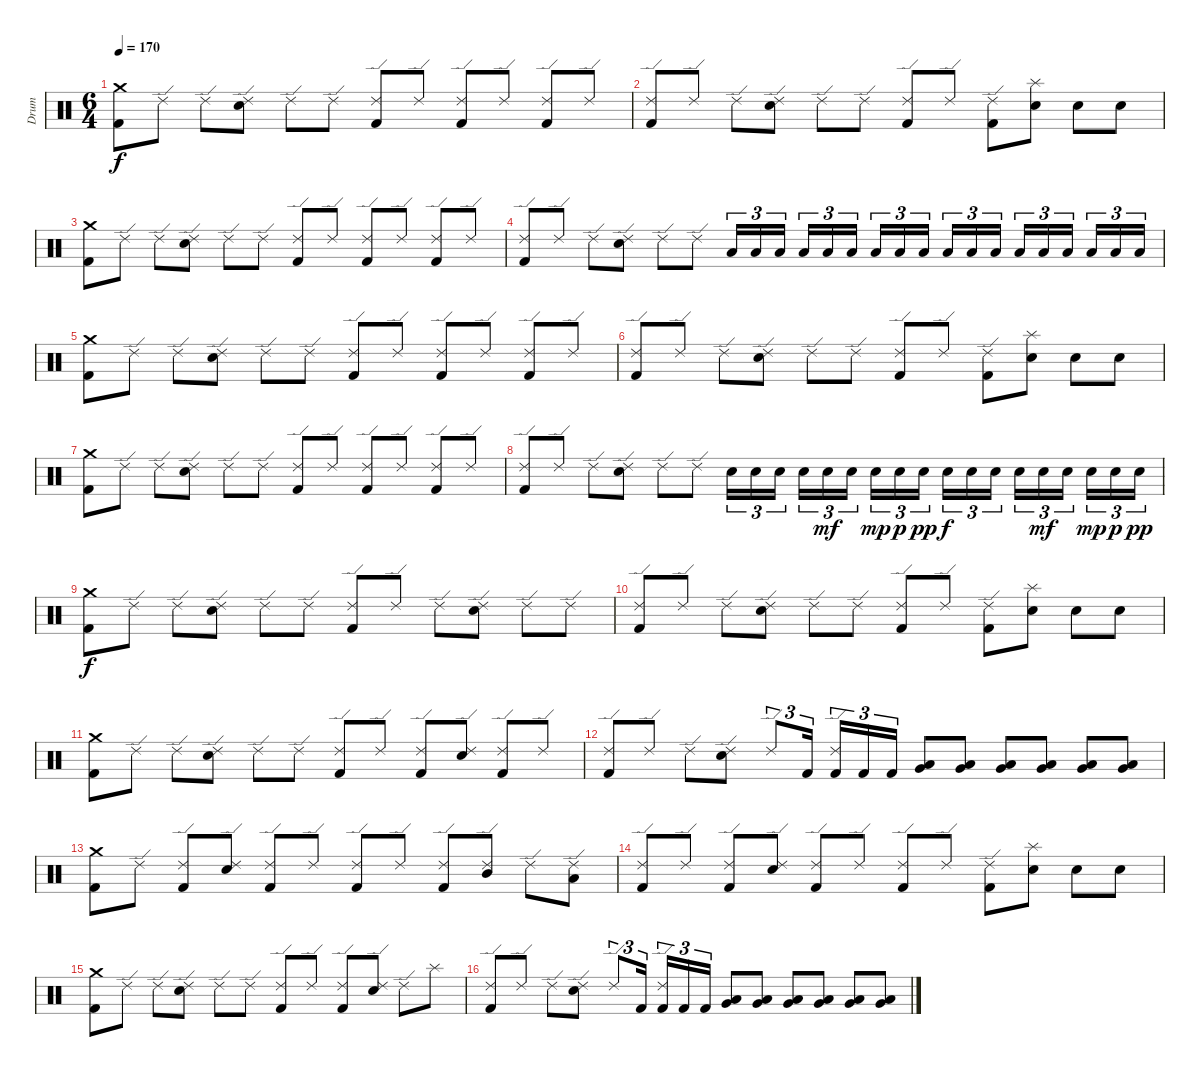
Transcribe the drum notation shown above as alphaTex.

\track ("Drum" "Drum") {instrument percussion}
\staff {score}
\articulation defaults
\ts (6 4)
\tempo 170
\clef neutral
\ks c
("Crash medium (hit)" "Kick (hit) 2").8{dy f} "Ride (edge) 2".8 "Ride (edge) 2".8 ("Ride (edge) 2" "Electric Snare (hit)").8 "Ride (edge) 2".8 "Ride (edge) 2".8 ("Ride (edge) 2" "Kick (hit) 2").8 "Ride (edge) 2".8 ("Ride (edge) 2" "Kick (hit) 2").8 "Ride (edge) 2".8 ("Ride (edge) 2" "Kick (hit) 2").8 "Ride (edge) 2".8 |
("Ride (edge) 2" "Kick (hit) 2").8 "Ride (edge) 2".8 "Ride (edge) 2".8 ("Ride (edge) 2" "Electric Snare (hit)").8 "Ride (edge) 2".8 "Ride (edge) 2".8 ("Ride (edge) 2" "Kick (hit) 2").8 "Ride (edge) 2".8 ("Ride (edge) 2" "Kick (hit) 2").8 ("Splash (hit)" "Electric Snare (hit)").8 "Electric Snare (hit)".8 "Electric Snare (hit)".8 |
("Crash medium (hit)" "Kick (hit) 2").8 "Ride (edge) 2".8 "Ride (edge) 2".8 ("Ride (edge) 2" "Electric Snare (hit)").8 "Ride (edge) 2".8 "Ride (edge) 2".8 ("Ride (edge) 2" "Kick (hit) 2").8 "Ride (edge) 2".8 ("Ride (edge) 2" "Kick (hit) 2").8 "Ride (edge) 2".8 ("Ride (edge) 2" "Kick (hit) 2").8 "Ride (edge) 2".8 |
("Ride (edge) 2" "Kick (hit) 2").8 "Ride (edge) 2".8 "Ride (edge) 2".8 ("Ride (edge) 2" "Electric Snare (hit)").8 "Ride (edge) 2".8 "Ride (edge) 2".8 "Low Tom (hit)".16{tu (3 2)} "Low Tom (hit)".16{tu (3 2)} "Low Tom (hit)".16{tu (3 2)} "Low Tom (hit)".16{tu (3 2)} "Low Tom (hit)".16{tu (3 2)} "Low Tom (hit)".16{tu (3 2)} "Low Tom (hit)".16{tu (3 2)} "Low Tom (hit)".16{tu (3 2)} "Low Tom (hit)".16{tu (3 2)} "Low Floor Tom (hit)".16{tu (3 2)} "Low Floor Tom (hit)".16{tu (3 2)} "Low Floor Tom (hit)".16{tu (3 2)} "Low Floor Tom (hit)".16{tu (3 2)} "Low Floor Tom (hit)".16{tu (3 2)} "Low Floor Tom (hit)".16{tu (3 2)} "Low Floor Tom (hit)".16{tu (3 2)} "Low Floor Tom (hit)".16{tu (3 2)} "Low Floor Tom (hit)".16{tu (3 2)} |
("Crash medium (hit)" "Kick (hit) 2").8 "Ride (edge) 2".8 "Ride (edge) 2".8 ("Ride (edge) 2" "Electric Snare (hit)").8 "Ride (edge) 2".8 "Ride (edge) 2".8 ("Ride (edge) 2" "Kick (hit) 2").8 "Ride (edge) 2".8 ("Ride (edge) 2" "Kick (hit) 2").8 "Ride (edge) 2".8 ("Ride (edge) 2" "Kick (hit) 2").8 "Ride (edge) 2".8 |
("Ride (edge) 2" "Kick (hit) 2").8 "Ride (edge) 2".8 "Ride (edge) 2".8 ("Ride (edge) 2" "Electric Snare (hit)").8 "Ride (edge) 2".8 "Ride (edge) 2".8 ("Ride (edge) 2" "Kick (hit) 2").8 "Ride (edge) 2".8 ("Ride (edge) 2" "Kick (hit) 2").8 ("Splash (hit)" "Electric Snare (hit)").8 "Electric Snare (hit)".8 "Electric Snare (hit)".8 |
("Crash medium (hit)" "Kick (hit) 2").8 "Ride (edge) 2".8 "Ride (edge) 2".8 ("Ride (edge) 2" "Electric Snare (hit)").8 "Ride (edge) 2".8 "Ride (edge) 2".8 ("Ride (edge) 2" "Kick (hit) 2").8 "Ride (edge) 2".8 ("Ride (edge) 2" "Kick (hit) 2").8 "Ride (edge) 2".8 ("Ride (edge) 2" "Kick (hit) 2").8 "Ride (edge) 2".8 |
("Ride (edge) 2" "Kick (hit) 2").8 "Ride (edge) 2".8 "Ride (edge) 2".8 ("Ride (edge) 2" "Electric Snare (hit)").8 "Ride (edge) 2".8 "Ride (edge) 2".8 "Electric Snare (hit)".16{tu (3 2)} "Electric Snare (hit)".16{tu (3 2)} "Electric Snare (hit)".16{tu (3 2)} "Electric Snare (hit)".16{tu (3 2)} "Electric Snare (hit)".16{tu (3 2) dy mf} "Electric Snare (hit)".16{tu (3 2)} "Electric Snare (hit)".16{tu (3 2) dy mp} "Electric Snare (hit)".16{tu (3 2) dy p} "Electric Snare (hit)".16{tu (3 2) dy pp} "Electric Snare (hit)".16{tu (3 2) dy f} "Electric Snare (hit)".16{tu (3 2)} "Electric Snare (hit)".16{tu (3 2)} "Electric Snare (hit)".16{tu (3 2)} "Electric Snare (hit)".16{tu (3 2) dy mf} "Electric Snare (hit)".16{tu (3 2)} "Electric Snare (hit)".16{tu (3 2) dy mp} "Electric Snare (hit)".16{tu (3 2) dy p} "Electric Snare (hit)".16{tu (3 2) dy pp} |
("Crash medium (hit)" "Kick (hit) 2").8{dy f} "Ride (edge) 2".8 "Ride (edge) 2".8 ("Ride (edge) 2" "Electric Snare (hit)").8 "Ride (edge) 2".8 "Ride (edge) 2".8 ("Ride (edge) 2" "Kick (hit) 2").8 "Ride (edge) 2".8 "Ride (edge) 2".8 ("Ride (edge) 2" "Electric Snare (hit)").8 "Ride (edge) 2".8 "Ride (edge) 2".8 |
("Ride (edge) 2" "Kick (hit) 2").8 "Ride (edge) 2".8 "Ride (edge) 2".8 ("Ride (edge) 2" "Electric Snare (hit)").8 "Ride (edge) 2".8 "Ride (edge) 2".8 ("Ride (edge) 2" "Kick (hit) 2").8 "Ride (edge) 2".8 ("Ride (edge) 2" "Kick (hit) 2").8 ("Splash (hit)" "Electric Snare (hit)").8 "Electric Snare (hit)".8 "Electric Snare (hit)".8 |
("Crash medium (hit)" "Kick (hit) 2").8 "Ride (edge) 2".8 "Ride (edge) 2".8 ("Ride (edge) 2" "Electric Snare (hit)").8 "Ride (edge) 2".8 "Ride (edge) 2".8 ("Ride (edge) 2" "Kick (hit) 2").8 "Ride (edge) 2".8 ("Ride (edge) 2" "Kick (hit) 2").8 ("Ride (edge) 2" "Electric Snare (hit)").8 ("Ride (edge) 2" "Kick (hit) 2").8 "Ride (edge) 2".8 |
("Ride (edge) 2" "Kick (hit) 2").8 "Ride (edge) 2".8 "Ride (edge) 2".8 ("Ride (edge) 2" "Electric Snare (hit)").8 "Ride (edge) 2".8{tu (3 2)} "Kick (hit) 2".16{tu (3 2)} ("Ride (edge) 2" "Kick (hit) 2").16{tu (3 2)} "Kick (hit) 2".16{tu (3 2)} "Kick (hit) 2".16{tu (3 2)} ("Low Tom (hit)" "Very Low Tom (hit)").8 ("Low Tom (hit)" "Very Low Tom (hit)").8 ("Low Tom (hit)" "Very Low Tom (hit)").8 ("Very Low Tom (hit)" "Low Floor Tom (hit)").8 ("Very Low Tom (hit)" "Low Floor Tom (hit)").8 ("Very Low Tom (hit)" "Low Floor Tom (hit)").8 |
("Crash medium (hit)" "Kick (hit) 2").8 "Ride (edge) 2".8 ("Ride (edge) 2" "Kick (hit) 2").8 ("Ride (edge) 2" "Electric Snare (hit)").8 ("Ride (edge) 2" "Kick (hit) 2").8 "Ride (edge) 2".8 ("Ride (edge) 2" "Kick (hit) 2").8 "Ride (edge) 2".8 ("Ride (edge) 2" "Kick (hit) 2").8 ("Ride (edge) 2" "Mid Tom (hit)").8 "Ride (edge) 2".8 ("Ride (edge) 2" "Low Tom (hit)").8 |
("Ride (edge) 2" "Kick (hit) 2").8 "Ride (edge) 2".8 ("Ride (edge) 2" "Kick (hit) 2").8 ("Ride (edge) 2" "Electric Snare (hit)").8 ("Ride (edge) 2" "Kick (hit) 2").8 "Ride (edge) 2".8 ("Ride (edge) 2" "Kick (hit) 2").8 "Ride (edge) 2".8 ("Ride (edge) 2" "Kick (hit) 2").8 ("Splash (hit)" "Electric Snare (hit)").8 "Electric Snare (hit)".8 "Electric Snare (hit)".8 |
("Crash medium (hit)" "Kick (hit) 2").8 "Ride (edge) 2".8 "Ride (edge) 2".8 ("Ride (edge) 2" "Electric Snare (hit)").8 "Ride (edge) 2".8 "Ride (edge) 2".8 ("Ride (edge) 2" "Kick (hit) 2").8 "Ride (edge) 2".8 ("Ride (edge) 2" "Kick (hit) 2").8 ("Ride (edge) 2" "Electric Snare (hit)").8 "Ride (edge) 2".8 "Splash (hit)".8 |
("Ride (edge) 2" "Kick (hit) 2").8 "Ride (edge) 2".8 "Ride (edge) 2".8 ("Ride (edge) 2" "Electric Snare (hit)").8 "Ride (edge) 2".8{tu (3 2)} "Kick (hit) 2".16{tu (3 2)} ("Ride (edge) 2" "Kick (hit) 2").16{tu (3 2)} "Kick (hit) 2".16{tu (3 2)} "Kick (hit) 2".16{tu (3 2)} ("Low Tom (hit)" "Very Low Tom (hit)").8 ("Low Tom (hit)" "Very Low Tom (hit)").8 ("Low Tom (hit)" "Very Low Tom (hit)").8 ("Very Low Tom (hit)" "Low Floor Tom (hit)").8 ("Very Low Tom (hit)" "Low Floor Tom (hit)").8 ("Very Low Tom (hit)" "Low Floor Tom (hit)").8
